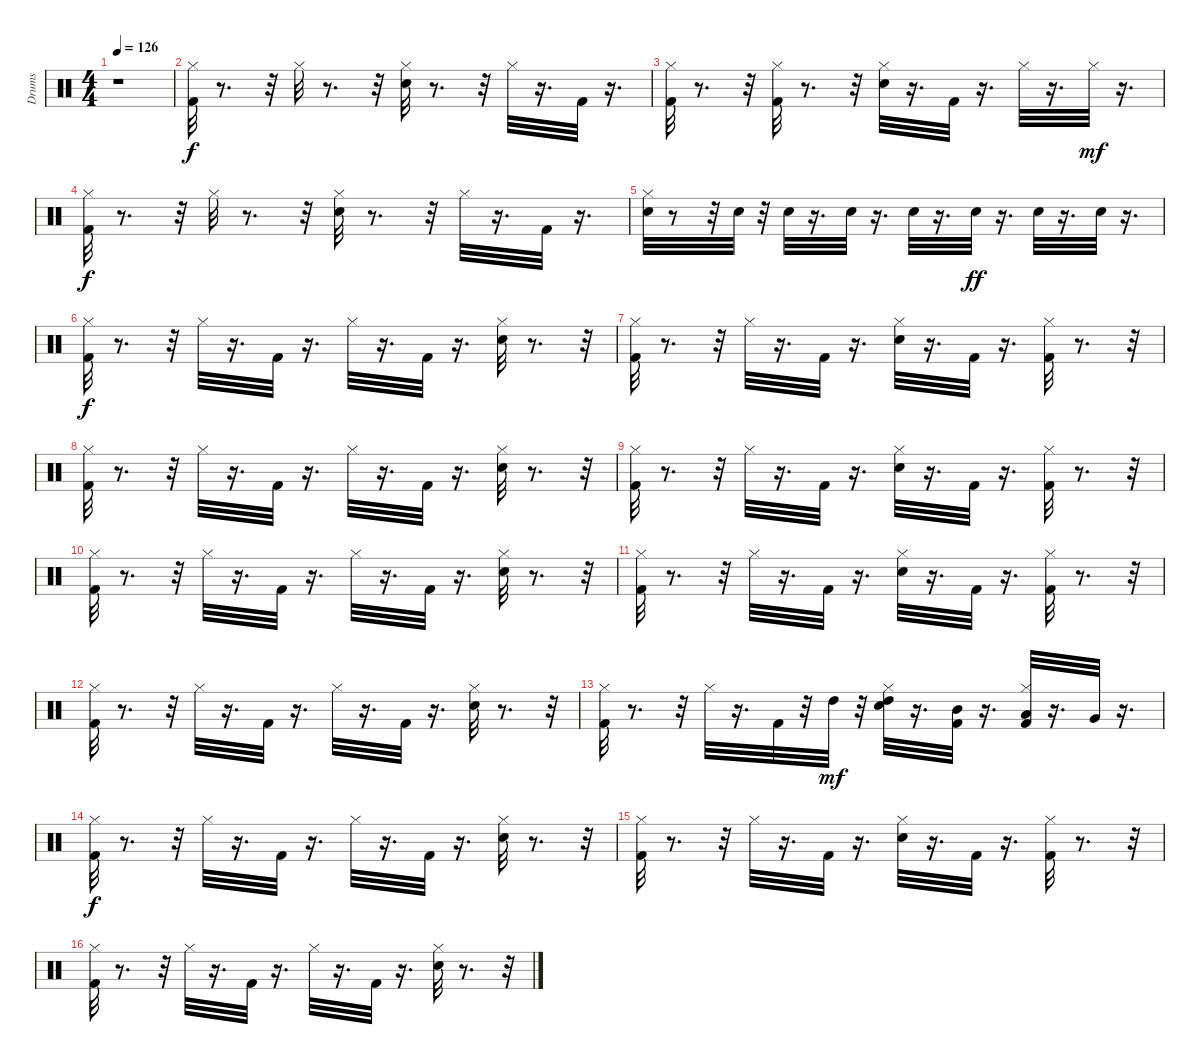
\track ("Drums" "Drums") {instrument percussion}
\staff {score}
\articulation defaults
\ts (4 4)
\tempo 126
\clef neutral
\ks c
r.1{dy f} |
("Kick (hit) 2" "Hi-Hat (closed)").32 r.8{d} r.32 "Hi-Hat (closed)".32 r.8{d} r.32 ("Snare (hit) 2" "Hi-Hat (closed)").32 r.8{d} r.32 "Hi-Hat (closed)".32 r.16{d} "Kick (hit) 2".32 r.16{d} |
("Kick (hit) 2" "Hi-Hat (closed)").32 r.8{d} r.32 ("Kick (hit) 2" "Hi-Hat (closed)").32 r.8{d} r.32 ("Snare (hit) 2" "Hi-Hat (closed)").32 r.16{d} "Kick (hit) 2".32 r.16{d} "Hi-Hat (closed)".32 r.16{d} "Hi-Hat (closed)".32{dy mf} r.16{d} |
("Kick (hit) 2" "Hi-Hat (closed)").32{dy f} r.8{d} r.32 "Hi-Hat (closed)".32 r.8{d} r.32 ("Snare (hit) 2" "Hi-Hat (closed)").32 r.8{d} r.32 "Hi-Hat (closed)".32 r.16{d} "Kick (hit) 2".32 r.16{d} |
("Snare (hit) 2" "Hi-Hat (closed)").32 r.8 r.32 "Snare (hit) 2".32 r.32 "Snare (hit) 2".32 r.16{d} "Snare (hit) 2".32 r.16{d} "Snare (hit) 2".32 r.16{d} "Snare (hit) 2".32{dy ff} r.16{d} "Snare (hit) 2".32 r.16{d} "Snare (hit) 2".32 r.16{d} |
("Kick (hit) 2" "Hi-Hat (closed)").32{dy f} r.8{d} r.32 "Hi-Hat (closed)".32 r.16{d} "Kick (hit) 2".32 r.16{d} "Hi-Hat (closed)".32 r.16{d} "Kick (hit) 2".32 r.16{d} ("Snare (hit) 2" "Hi-Hat (closed)").32 r.8{d} r.32 |
("Kick (hit) 2" "Hi-Hat (closed)").32 r.8{d} r.32 "Hi-Hat (closed)".32 r.16{d} "Kick (hit) 2".32 r.16{d} ("Snare (hit) 2" "Hi-Hat (closed)").32 r.16{d} "Kick (hit) 2".32 r.16{d} ("Kick (hit) 2" "Hi-Hat (closed)").32 r.8{d} r.32 |
("Kick (hit) 2" "Hi-Hat (closed)").32 r.8{d} r.32 "Hi-Hat (closed)".32 r.16{d} "Kick (hit) 2".32 r.16{d} "Hi-Hat (closed)".32 r.16{d} "Kick (hit) 2".32 r.16{d} ("Snare (hit) 2" "Hi-Hat (closed)").32 r.8{d} r.32 |
("Kick (hit) 2" "Hi-Hat (closed)").32 r.8{d} r.32 "Hi-Hat (closed)".32 r.16{d} "Kick (hit) 2".32 r.16{d} ("Snare (hit) 2" "Hi-Hat (closed)").32 r.16{d} "Kick (hit) 2".32 r.16{d} ("Kick (hit) 2" "Hi-Hat (closed)").32 r.8{d} r.32 |
("Kick (hit) 2" "Hi-Hat (closed)").32 r.8{d} r.32 "Hi-Hat (closed)".32 r.16{d} "Kick (hit) 2".32 r.16{d} "Hi-Hat (closed)".32 r.16{d} "Kick (hit) 2".32 r.16{d} ("Snare (hit) 2" "Hi-Hat (closed)").32 r.8{d} r.32 |
("Kick (hit) 2" "Hi-Hat (closed)").32 r.8{d} r.32 "Hi-Hat (closed)".32 r.16{d} "Kick (hit) 2".32 r.16{d} ("Snare (hit) 2" "Hi-Hat (closed)").32 r.16{d} "Kick (hit) 2".32 r.16{d} ("Kick (hit) 2" "Hi-Hat (closed)").32 r.8{d} r.32 |
("Kick (hit) 2" "Hi-Hat (closed)").32 r.8{d} r.32 "Hi-Hat (closed)".32 r.16{d} "Kick (hit) 2".32 r.16{d} "Hi-Hat (closed)".32 r.16{d} "Kick (hit) 2".32 r.16{d} ("Snare (hit) 2" "Hi-Hat (closed)").32 r.8{d} r.32 |
("Kick (hit) 2" "Hi-Hat (closed)").32 r.8{d} r.32 "Hi-Hat (closed)".32 r.16{d} "Kick (hit) 2".32 r.32 "High Tom (hit)".32{dy mf} r.32 ("Snare (hit) 2" "Hi-Hat (closed)" "High Tom (hit)").32 r.16{d} ("Kick (hit) 2" "Mid Tom (hit)").32 r.16{d} ("Kick (hit) 2" "Hi-Hat (closed)" "Low Tom (hit)").32 r.16{d} "Very Low Tom (hit)".32 r.16{d} |
("Kick (hit) 2" "Hi-Hat (closed)").32{dy f} r.8{d} r.32 "Hi-Hat (closed)".32 r.16{d} "Kick (hit) 2".32 r.16{d} "Hi-Hat (closed)".32 r.16{d} "Kick (hit) 2".32 r.16{d} ("Snare (hit) 2" "Hi-Hat (closed)").32 r.8{d} r.32 |
("Kick (hit) 2" "Hi-Hat (closed)").32 r.8{d} r.32 "Hi-Hat (closed)".32 r.16{d} "Kick (hit) 2".32 r.16{d} ("Snare (hit) 2" "Hi-Hat (closed)").32 r.16{d} "Kick (hit) 2".32 r.16{d} ("Kick (hit) 2" "Hi-Hat (closed)").32 r.8{d} r.32 |
("Kick (hit) 2" "Hi-Hat (closed)").32 r.8{d} r.32 "Hi-Hat (closed)".32 r.16{d} "Kick (hit) 2".32 r.16{d} "Hi-Hat (closed)".32 r.16{d} "Kick (hit) 2".32 r.16{d} ("Snare (hit) 2" "Hi-Hat (closed)").32 r.8{d} r.32
